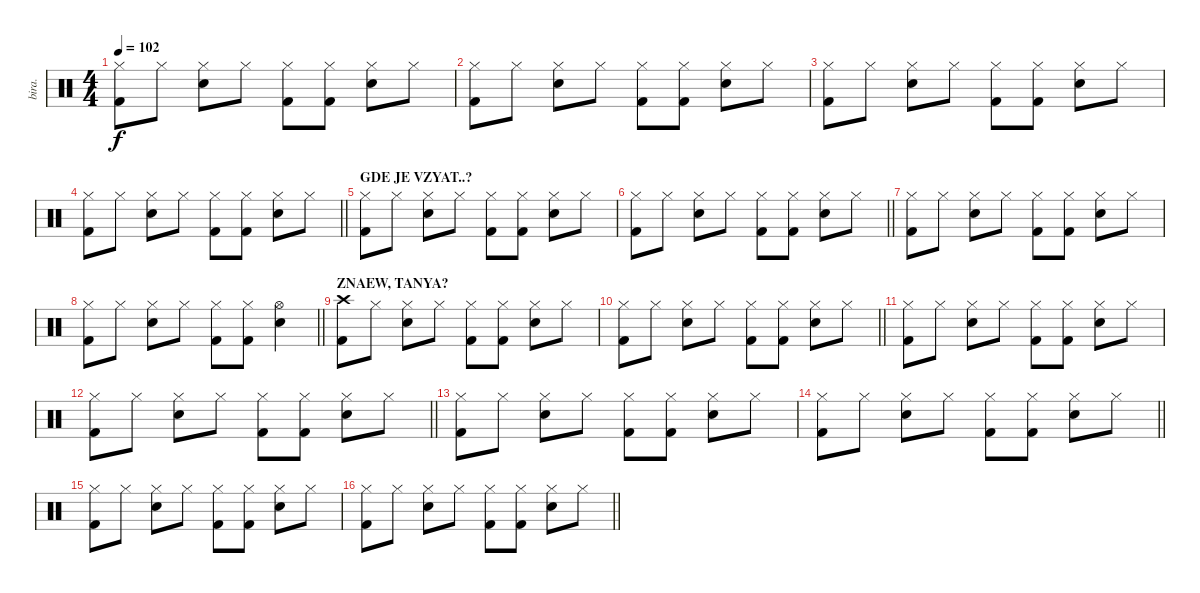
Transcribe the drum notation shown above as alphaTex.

\track ("bira." "bira.") {instrument percussion}
\staff {score}
\articulation defaults
\ts (4 4)
\tempo 102
\clef neutral
\ks c
("Hi-Hat (closed)" "Kick (hit) 2").8{dy f} "Hi-Hat (closed)".8 ("Hi-Hat (closed)" "Electric Snare (hit)").8 "Hi-Hat (closed)".8 ("Hi-Hat (closed)" "Kick (hit) 2").8 ("Hi-Hat (closed)" "Kick (hit) 2").8 ("Hi-Hat (closed)" "Electric Snare (hit)").8 "Hi-Hat (closed)".8 |
("Hi-Hat (closed)" "Kick (hit) 2").8 "Hi-Hat (closed)".8 ("Hi-Hat (closed)" "Electric Snare (hit)").8 "Hi-Hat (closed)".8 ("Hi-Hat (closed)" "Kick (hit) 2").8 ("Hi-Hat (closed)" "Kick (hit) 2").8 ("Hi-Hat (closed)" "Electric Snare (hit)").8 "Hi-Hat (closed)".8 |
("Hi-Hat (closed)" "Kick (hit) 2").8 "Hi-Hat (closed)".8 ("Hi-Hat (closed)" "Electric Snare (hit)").8 "Hi-Hat (closed)".8 ("Hi-Hat (closed)" "Kick (hit) 2").8 ("Hi-Hat (closed)" "Kick (hit) 2").8 ("Hi-Hat (closed)" "Electric Snare (hit)").8 "Hi-Hat (closed)".8 |
\barLineRight lightlight
("Hi-Hat (closed)" "Kick (hit) 2").8 "Hi-Hat (closed)".8 ("Hi-Hat (closed)" "Electric Snare (hit)").8 "Hi-Hat (closed)".8 ("Hi-Hat (closed)" "Kick (hit) 2").8 ("Hi-Hat (closed)" "Kick (hit) 2").8 ("Hi-Hat (closed)" "Electric Snare (hit)").8 "Hi-Hat (closed)".8 |
\section ("" "GDE JE VZYAT..?")
("Hi-Hat (closed)" "Kick (hit) 2").8 "Hi-Hat (closed)".8 ("Hi-Hat (closed)" "Electric Snare (hit)").8 "Hi-Hat (closed)".8 ("Hi-Hat (closed)" "Kick (hit) 2").8 ("Hi-Hat (closed)" "Kick (hit) 2").8 ("Hi-Hat (closed)" "Electric Snare (hit)").8 "Hi-Hat (closed)".8 |
\barLineRight lightlight
("Hi-Hat (closed)" "Kick (hit) 2").8 "Hi-Hat (closed)".8 ("Hi-Hat (closed)" "Electric Snare (hit)").8 "Hi-Hat (closed)".8 ("Hi-Hat (closed)" "Kick (hit) 2").8 ("Hi-Hat (closed)" "Kick (hit) 2").8 ("Hi-Hat (closed)" "Electric Snare (hit)").8 "Hi-Hat (closed)".8 |
("Hi-Hat (closed)" "Kick (hit) 2").8 "Hi-Hat (closed)".8 ("Hi-Hat (closed)" "Electric Snare (hit)").8 "Hi-Hat (closed)".8 ("Hi-Hat (closed)" "Kick (hit) 2").8 ("Hi-Hat (closed)" "Kick (hit) 2").8 ("Hi-Hat (closed)" "Electric Snare (hit)").8 "Hi-Hat (closed)".8 |
\barLineRight lightlight
("Hi-Hat (closed)" "Kick (hit) 2").8 "Hi-Hat (closed)".8 ("Hi-Hat (closed)" "Electric Snare (hit)").8 "Hi-Hat (closed)".8 ("Hi-Hat (closed)" "Kick (hit) 2").8 ("Hi-Hat (closed)" "Kick (hit) 2").8 ("Hi-Hat (open)" "Electric Snare (hit)").4 |
\section ("" "ZNAEW, TANYA?")
("Crash high (hit)" "Kick (hit) 2").8 "Hi-Hat (closed)".8 ("Hi-Hat (closed)" "Electric Snare (hit)").8 "Hi-Hat (closed)".8 ("Hi-Hat (closed)" "Kick (hit) 2").8 ("Hi-Hat (closed)" "Kick (hit) 2").8 ("Hi-Hat (closed)" "Electric Snare (hit)").8 "Hi-Hat (closed)".8 |
\barLineRight lightlight
("Hi-Hat (closed)" "Kick (hit) 2").8 "Hi-Hat (closed)".8 ("Hi-Hat (closed)" "Electric Snare (hit)").8 "Hi-Hat (closed)".8 ("Hi-Hat (closed)" "Kick (hit) 2").8 ("Hi-Hat (closed)" "Kick (hit) 2").8 ("Hi-Hat (closed)" "Electric Snare (hit)").8 "Hi-Hat (closed)".8 |
("Hi-Hat (closed)" "Kick (hit) 2").8 "Hi-Hat (closed)".8 ("Hi-Hat (closed)" "Electric Snare (hit)").8 "Hi-Hat (closed)".8 ("Hi-Hat (closed)" "Kick (hit) 2").8 ("Hi-Hat (closed)" "Kick (hit) 2").8 ("Hi-Hat (closed)" "Electric Snare (hit)").8 "Hi-Hat (closed)".8 |
\barLineRight lightlight
("Hi-Hat (closed)" "Kick (hit) 2").8 "Hi-Hat (closed)".8 ("Hi-Hat (closed)" "Electric Snare (hit)").8 "Hi-Hat (closed)".8 ("Hi-Hat (closed)" "Kick (hit) 2").8 ("Hi-Hat (closed)" "Kick (hit) 2").8 ("Hi-Hat (closed)" "Electric Snare (hit)").8 "Hi-Hat (closed)".8 |
("Hi-Hat (closed)" "Kick (hit) 2").8 "Hi-Hat (closed)".8 ("Hi-Hat (closed)" "Electric Snare (hit)").8 "Hi-Hat (closed)".8 ("Hi-Hat (closed)" "Kick (hit) 2").8 ("Hi-Hat (closed)" "Kick (hit) 2").8 ("Hi-Hat (closed)" "Electric Snare (hit)").8 "Hi-Hat (closed)".8 |
\barLineRight lightlight
("Hi-Hat (closed)" "Kick (hit) 2").8 "Hi-Hat (closed)".8 ("Hi-Hat (closed)" "Electric Snare (hit)").8 "Hi-Hat (closed)".8 ("Hi-Hat (closed)" "Kick (hit) 2").8 ("Hi-Hat (closed)" "Kick (hit) 2").8 ("Hi-Hat (closed)" "Electric Snare (hit)").8 "Hi-Hat (closed)".8 |
("Hi-Hat (closed)" "Kick (hit) 2").8 "Hi-Hat (closed)".8 ("Hi-Hat (closed)" "Electric Snare (hit)").8 "Hi-Hat (closed)".8 ("Hi-Hat (closed)" "Kick (hit) 2").8 ("Hi-Hat (closed)" "Kick (hit) 2").8 ("Hi-Hat (closed)" "Electric Snare (hit)").8 "Hi-Hat (closed)".8 |
\barLineRight lightlight
("Hi-Hat (closed)" "Kick (hit) 2").8 "Hi-Hat (closed)".8 ("Hi-Hat (closed)" "Electric Snare (hit)").8 "Hi-Hat (closed)".8 ("Hi-Hat (closed)" "Kick (hit) 2").8 ("Hi-Hat (closed)" "Kick (hit) 2").8 ("Hi-Hat (closed)" "Electric Snare (hit)").8 "Hi-Hat (closed)".8
